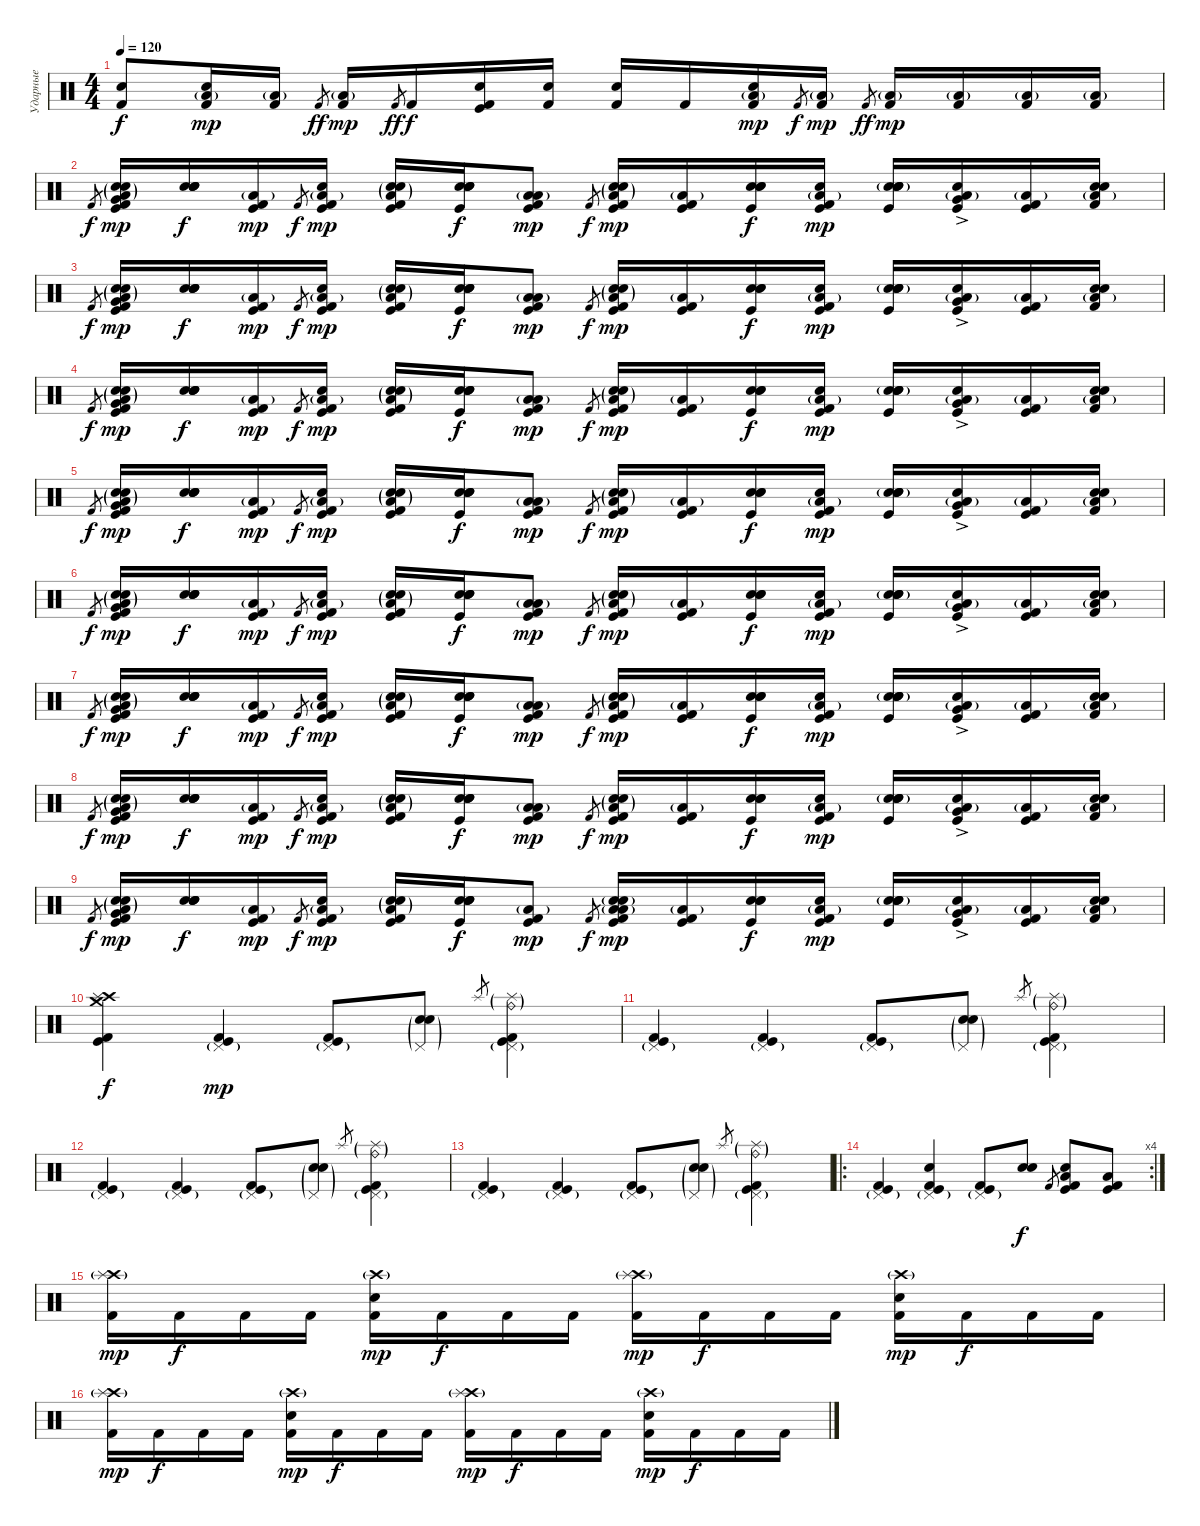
\track ("Ударные" "Ударные") {instrument percussion bank 2}
\staff {score}
\articulation defaults
\ts (4 4)
\tempo 120
\clef neutral
\ks c
("Kick (hit) 2" "Snare (hit) 2").8{dy f} ("Kick (hit) 2" "Snare (hit)" "Low Floor Tom (hit)"{g}).16{dy mp} ("Kick (hit) 2" "Low Floor Tom (hit)"{g}).16 "Kick (hit) 2".8{gr dy ff} ("Kick (hit) 2" "Low Floor Tom (hit)"{g}).16{dy mp} "Kick (hit) 2".8{gr dy ff} "Kick (hit) 2".16{dy f} ("Kick (hit) 2" "Snare (hit)" "Kick (hit)").16 ("Kick (hit) 2" "Snare (hit)").16 ("Kick (hit) 2" "Snare (hit) 2").16 "Kick (hit) 2".16 ("Kick (hit) 2" "Snare (hit)" "Low Floor Tom (hit)"{g}).16{dy mp} "Kick (hit) 2".8{gr dy f} ("Kick (hit) 2" "Low Floor Tom (hit)"{g}).16{dy mp} "Kick (hit) 2".8{gr dy ff} ("Kick (hit) 2" "Low Floor Tom (hit)"{g}).16{dy mp} ("Kick (hit) 2" "Low Floor Tom (hit)"{g}).16 ("Kick (hit) 2" "Low Tom (hit)"{g}).16 ("Kick (hit) 2" "Low Tom (hit)"{g}).16 |
"Kick (hit) 2".8{gr dy f} ("Kick (hit) 2" "Very Low Tom (hit)" "Kick (hit)" "Snare (hit) 2" "Low Floor Tom (hit)"{g} "Electric Snare (hit)"{g}).16{dy mp} ("Snare (hit)" "Snare (hit)" "Snare (hit)" "Snare (hit)").16{dy f} ("Kick (hit) 2" "Kick (hit)" "Low Floor Tom (hit)"{g}).16{dy mp} "Kick (hit) 2".8{gr dy f} ("Kick (hit) 2" "Kick (hit)" "Snare (hit)" "Low Floor Tom (hit)"{g}).16{dy mp} ("Kick (hit) 2" "Kick (hit)" "Snare (hit) 2" "Low Floor Tom (hit)"{g} "Electric Snare (hit)"{g}).16 ("Snare (hit)" "Snare (hit)" "Kick (hit)" "Snare (hit)" "Snare (hit)").16{dy f} ("Kick (hit) 2" "Low Tom (hit)" "Kick (hit)" "Low Floor Tom (hit)"{g}).8{dy mp} "Kick (hit) 2".8{gr dy f} ("Kick (hit) 2" "Kick (hit)" "Snare (hit) 2" "Low Floor Tom (hit)"{g} "Electric Snare (hit)"{g}).16{dy mp} ("Kick (hit) 2" "Kick (hit)" "Low Floor Tom (hit)"{g}).16 ("Snare (hit)" "Kick (hit)" "Snare (hit)" "Snare (hit)").16{dy f} ("Kick (hit) 2" "Kick (hit)" "Snare (hit)" "Low Floor Tom (hit)"{g}).16{dy mp} ("Snare (hit)" "Kick (hit)" "Snare (hit) 2" "Snare (hit)" "Electric Snare (hit)"{g}).16 ("Snare (hit)" "Very Low Tom (hit)" "Kick (hit)"{ac} "Low Floor Tom (hit)"{g}).16 ("Kick (hit) 2" "Kick (hit)" "Low Floor Tom (hit)"{g}).16 ("Kick (hit) 2" "Snare (hit)" "Snare (hit)" "Low Floor Tom (hit)"{g}).16 |
"Kick (hit) 2".8{gr dy f} ("Kick (hit) 2" "Very Low Tom (hit)" "Kick (hit)" "Snare (hit) 2" "Low Floor Tom (hit)"{g} "Electric Snare (hit)"{g}).16{dy mp} ("Snare (hit)" "Snare (hit)" "Snare (hit)" "Snare (hit)").16{dy f} ("Kick (hit) 2" "Kick (hit)" "Low Floor Tom (hit)"{g}).16{dy mp} "Kick (hit) 2".8{gr dy f} ("Kick (hit) 2" "Kick (hit)" "Snare (hit)" "Low Floor Tom (hit)"{g}).16{dy mp} ("Kick (hit) 2" "Kick (hit)" "Snare (hit) 2" "Low Floor Tom (hit)"{g} "Electric Snare (hit)"{g}).16 ("Snare (hit)" "Snare (hit)" "Kick (hit)" "Snare (hit)" "Snare (hit)").16{dy f} ("Kick (hit) 2" "Low Tom (hit)" "Kick (hit)" "Low Floor Tom (hit)"{g}).8{dy mp} "Kick (hit) 2".8{gr dy f} ("Kick (hit) 2" "Kick (hit)" "Snare (hit) 2" "Low Floor Tom (hit)"{g} "Electric Snare (hit)"{g}).16{dy mp} ("Kick (hit) 2" "Kick (hit)" "Low Floor Tom (hit)"{g}).16 ("Snare (hit)" "Kick (hit)" "Snare (hit)" "Snare (hit)").16{dy f} ("Kick (hit) 2" "Kick (hit)" "Snare (hit)" "Low Floor Tom (hit)"{g}).16{dy mp} ("Snare (hit)" "Kick (hit)" "Snare (hit) 2" "Snare (hit)" "Electric Snare (hit)"{g}).16 ("Snare (hit)" "Very Low Tom (hit)" "Kick (hit)"{ac} "Low Floor Tom (hit)"{g}).16 ("Kick (hit) 2" "Kick (hit)" "Low Floor Tom (hit)"{g}).16 ("Kick (hit) 2" "Snare (hit)" "Snare (hit)" "Low Floor Tom (hit)"{g}).16 |
"Kick (hit) 2".8{gr dy f} ("Kick (hit) 2" "Very Low Tom (hit)" "Kick (hit)" "Snare (hit) 2" "Low Floor Tom (hit)"{g} "Electric Snare (hit)"{g}).16{dy mp} ("Snare (hit)" "Snare (hit)" "Snare (hit)" "Snare (hit)").16{dy f} ("Kick (hit) 2" "Kick (hit)" "Low Floor Tom (hit)"{g}).16{dy mp} "Kick (hit) 2".8{gr dy f} ("Kick (hit) 2" "Kick (hit)" "Snare (hit)" "Low Floor Tom (hit)"{g}).16{dy mp} ("Kick (hit) 2" "Kick (hit)" "Snare (hit) 2" "Low Floor Tom (hit)"{g} "Electric Snare (hit)"{g}).16 ("Snare (hit)" "Snare (hit)" "Kick (hit)" "Snare (hit)" "Snare (hit)").16{dy f} ("Kick (hit) 2" "Low Tom (hit)" "Kick (hit)" "Low Floor Tom (hit)"{g}).8{dy mp} "Kick (hit) 2".8{gr dy f} ("Kick (hit) 2" "Kick (hit)" "Snare (hit) 2" "Low Floor Tom (hit)"{g} "Electric Snare (hit)"{g}).16{dy mp} ("Kick (hit) 2" "Kick (hit)" "Low Floor Tom (hit)"{g}).16 ("Snare (hit)" "Kick (hit)" "Snare (hit)" "Snare (hit)").16{dy f} ("Kick (hit) 2" "Kick (hit)" "Snare (hit)" "Low Floor Tom (hit)"{g}).16{dy mp} ("Snare (hit)" "Kick (hit)" "Snare (hit) 2" "Snare (hit)" "Electric Snare (hit)"{g}).16 ("Snare (hit)" "Very Low Tom (hit)" "Kick (hit)"{ac} "Low Floor Tom (hit)"{g}).16 ("Kick (hit) 2" "Kick (hit)" "Low Floor Tom (hit)"{g}).16 ("Kick (hit) 2" "Snare (hit)" "Snare (hit)" "Low Floor Tom (hit)"{g}).16 |
"Kick (hit) 2".8{gr dy f} ("Kick (hit) 2" "Very Low Tom (hit)" "Kick (hit)" "Snare (hit) 2" "Low Floor Tom (hit)"{g} "Electric Snare (hit)"{g}).16{dy mp} ("Snare (hit)" "Snare (hit)" "Snare (hit)" "Snare (hit)").16{dy f} ("Kick (hit) 2" "Kick (hit)" "Low Floor Tom (hit)"{g}).16{dy mp} "Kick (hit) 2".8{gr dy f} ("Kick (hit) 2" "Kick (hit)" "Snare (hit)" "Low Floor Tom (hit)"{g}).16{dy mp} ("Kick (hit) 2" "Kick (hit)" "Snare (hit) 2" "Low Floor Tom (hit)"{g} "Electric Snare (hit)"{g}).16 ("Snare (hit)" "Snare (hit)" "Kick (hit)" "Snare (hit)" "Snare (hit)").16{dy f} ("Kick (hit) 2" "Low Tom (hit)" "Kick (hit)" "Low Floor Tom (hit)"{g}).8{dy mp} "Kick (hit) 2".8{gr dy f} ("Kick (hit) 2" "Kick (hit)" "Snare (hit) 2" "Low Floor Tom (hit)"{g} "Electric Snare (hit)"{g}).16{dy mp} ("Kick (hit) 2" "Kick (hit)" "Low Floor Tom (hit)"{g}).16 ("Snare (hit)" "Kick (hit)" "Snare (hit)" "Snare (hit)").16{dy f} ("Kick (hit) 2" "Kick (hit)" "Snare (hit)" "Low Floor Tom (hit)"{g}).16{dy mp} ("Snare (hit)" "Kick (hit)" "Snare (hit) 2" "Snare (hit)" "Electric Snare (hit)"{g}).16 ("Snare (hit)" "Very Low Tom (hit)" "Kick (hit)"{ac} "Low Floor Tom (hit)"{g}).16 ("Kick (hit) 2" "Kick (hit)" "Low Floor Tom (hit)"{g}).16 ("Kick (hit) 2" "Snare (hit)" "Snare (hit)" "Low Floor Tom (hit)"{g}).16 |
"Kick (hit) 2".8{gr dy f} ("Kick (hit) 2" "Very Low Tom (hit)" "Kick (hit)" "Snare (hit) 2" "Low Floor Tom (hit)"{g} "Electric Snare (hit)"{g}).16{dy mp} ("Snare (hit)" "Snare (hit)" "Snare (hit)" "Snare (hit)").16{dy f} ("Kick (hit) 2" "Kick (hit)" "Low Floor Tom (hit)"{g}).16{dy mp} "Kick (hit) 2".8{gr dy f} ("Kick (hit) 2" "Kick (hit)" "Snare (hit)" "Low Floor Tom (hit)"{g}).16{dy mp} ("Kick (hit) 2" "Kick (hit)" "Snare (hit) 2" "Low Floor Tom (hit)"{g} "Electric Snare (hit)"{g}).16 ("Snare (hit)" "Snare (hit)" "Kick (hit)" "Snare (hit)" "Snare (hit)").16{dy f} ("Kick (hit) 2" "Low Tom (hit)" "Kick (hit)" "Low Floor Tom (hit)"{g}).8{dy mp} "Kick (hit) 2".8{gr dy f} ("Kick (hit) 2" "Kick (hit)" "Snare (hit) 2" "Low Floor Tom (hit)"{g} "Electric Snare (hit)"{g}).16{dy mp} ("Kick (hit) 2" "Kick (hit)" "Low Floor Tom (hit)"{g}).16 ("Snare (hit)" "Kick (hit)" "Snare (hit)" "Snare (hit)").16{dy f} ("Kick (hit) 2" "Kick (hit)" "Snare (hit)" "Low Floor Tom (hit)"{g}).16{dy mp} ("Snare (hit)" "Kick (hit)" "Snare (hit) 2" "Snare (hit)" "Electric Snare (hit)"{g}).16 ("Snare (hit)" "Very Low Tom (hit)" "Kick (hit)"{ac} "Low Floor Tom (hit)"{g}).16 ("Kick (hit) 2" "Kick (hit)" "Low Floor Tom (hit)"{g}).16 ("Kick (hit) 2" "Snare (hit)" "Snare (hit)" "Low Floor Tom (hit)"{g}).16 |
"Kick (hit) 2".8{gr dy f} ("Kick (hit) 2" "Very Low Tom (hit)" "Kick (hit)" "Snare (hit) 2" "Low Floor Tom (hit)"{g} "Electric Snare (hit)"{g}).16{dy mp} ("Snare (hit)" "Snare (hit)" "Snare (hit)" "Snare (hit)").16{dy f} ("Kick (hit) 2" "Kick (hit)" "Low Floor Tom (hit)"{g}).16{dy mp} "Kick (hit) 2".8{gr dy f} ("Kick (hit) 2" "Kick (hit)" "Snare (hit)" "Low Floor Tom (hit)"{g}).16{dy mp} ("Kick (hit) 2" "Kick (hit)" "Snare (hit) 2" "Low Floor Tom (hit)"{g} "Electric Snare (hit)"{g}).16 ("Snare (hit)" "Snare (hit)" "Kick (hit)" "Snare (hit)" "Snare (hit)").16{dy f} ("Kick (hit) 2" "Low Tom (hit)" "Kick (hit)" "Low Floor Tom (hit)"{g}).8{dy mp} "Kick (hit) 2".8{gr dy f} ("Kick (hit) 2" "Kick (hit)" "Snare (hit) 2" "Low Floor Tom (hit)"{g} "Electric Snare (hit)"{g}).16{dy mp} ("Kick (hit) 2" "Kick (hit)" "Low Floor Tom (hit)"{g}).16 ("Snare (hit)" "Kick (hit)" "Snare (hit)" "Snare (hit)").16{dy f} ("Kick (hit) 2" "Kick (hit)" "Snare (hit)" "Low Floor Tom (hit)"{g}).16{dy mp} ("Snare (hit)" "Kick (hit)" "Snare (hit) 2" "Snare (hit)" "Electric Snare (hit)"{g}).16 ("Snare (hit)" "Very Low Tom (hit)" "Kick (hit)"{ac} "Low Floor Tom (hit)"{g}).16 ("Kick (hit) 2" "Kick (hit)" "Low Floor Tom (hit)"{g}).16 ("Kick (hit) 2" "Snare (hit)" "Snare (hit)" "Low Floor Tom (hit)"{g}).16 |
"Kick (hit) 2".8{gr dy f} ("Kick (hit) 2" "Very Low Tom (hit)" "Kick (hit)" "Snare (hit) 2" "Low Floor Tom (hit)"{g} "Electric Snare (hit)"{g}).16{dy mp} ("Snare (hit)" "Snare (hit)" "Snare (hit)" "Snare (hit)").16{dy f} ("Kick (hit) 2" "Kick (hit)" "Low Floor Tom (hit)"{g}).16{dy mp} "Kick (hit) 2".8{gr dy f} ("Kick (hit) 2" "Kick (hit)" "Snare (hit)" "Low Floor Tom (hit)"{g}).16{dy mp} ("Kick (hit) 2" "Kick (hit)" "Snare (hit) 2" "Low Floor Tom (hit)"{g} "Electric Snare (hit)"{g}).16 ("Snare (hit)" "Snare (hit)" "Kick (hit)" "Snare (hit)" "Snare (hit)").16{dy f} ("Kick (hit) 2" "Low Tom (hit)" "Kick (hit)" "Low Floor Tom (hit)"{g}).8{dy mp} "Kick (hit) 2".8{gr dy f} ("Kick (hit) 2" "Kick (hit)" "Snare (hit) 2" "Low Floor Tom (hit)"{g} "Electric Snare (hit)"{g}).16{dy mp} ("Kick (hit) 2" "Kick (hit)" "Low Floor Tom (hit)"{g}).16 ("Snare (hit)" "Kick (hit)" "Snare (hit)" "Snare (hit)").16{dy f} ("Kick (hit) 2" "Kick (hit)" "Snare (hit)" "Low Floor Tom (hit)"{g}).16{dy mp} ("Snare (hit)" "Kick (hit)" "Snare (hit) 2" "Snare (hit)" "Electric Snare (hit)"{g}).16 ("Snare (hit)" "Very Low Tom (hit)" "Kick (hit)"{ac} "Low Floor Tom (hit)"{g}).16 ("Kick (hit) 2" "Kick (hit)" "Low Floor Tom (hit)"{g}).16 ("Kick (hit) 2" "Snare (hit)" "Snare (hit)" "Low Floor Tom (hit)"{g}).16 |
"Kick (hit) 2".8{gr dy f} ("Kick (hit) 2" "Very Low Tom (hit)" "Kick (hit)" "Snare (hit) 2" "Low Floor Tom (hit)"{g} "Electric Snare (hit)"{g}).16{dy mp} ("Snare (hit)" "Snare (hit)" "Snare (hit)" "Snare (hit)").16{dy f} ("Kick (hit) 2" "Kick (hit)" "Low Floor Tom (hit)"{g}).16{dy mp} "Kick (hit) 2".8{gr dy f} ("Kick (hit) 2" "Kick (hit)" "Snare (hit)" "Low Floor Tom (hit)"{g}).16{dy mp} ("Kick (hit) 2" "Kick (hit)" "Snare (hit) 2" "Low Floor Tom (hit)"{g} "Electric Snare (hit)"{g}).16 ("Snare (hit)" "Snare (hit)" "Kick (hit)" "Snare (hit)" "Snare (hit)").16{dy f} ("Kick (hit) 2" "Kick (hit)" "Low Floor Tom (hit)"{g}).8{dy mp} "Kick (hit) 2".8{gr dy f} ("Kick (hit) 2" "Low Tom (hit)" "Kick (hit)" "Snare (hit) 2" "Low Floor Tom (hit)"{g} "Electric Snare (hit)"{g}).16{dy mp} ("Kick (hit) 2" "Kick (hit)" "Low Floor Tom (hit)"{g}).16 ("Snare (hit)" "Kick (hit)" "Snare (hit)" "Snare (hit)").16{dy f} ("Kick (hit) 2" "Kick (hit)" "Snare (hit)" "Low Floor Tom (hit)"{g}).16{dy mp} ("Snare (hit)" "Kick (hit)" "Snare (hit) 2" "Snare (hit)" "Electric Snare (hit)"{g}).16 ("Snare (hit)" "Very Low Tom (hit)" "Kick (hit)"{ac} "Low Floor Tom (hit)"{g}).16 ("Kick (hit) 2" "Kick (hit)" "Low Floor Tom (hit)"{g}).16 ("Kick (hit) 2" "Snare (hit)" "Snare (hit)" "Low Floor Tom (hit)"{g}).16 |
("Kick (hit) 2" "Crash medium (hit)" "Crash high (hit)" "Splash (hit)" "Kick (hit)").4{dy f} ("Kick (hit) 2" "Pedal Hi-Hat (hit)"{g} "Kick (hit)").4{dy mp} ("Kick (hit) 2" "Pedal Hi-Hat (hit)"{g} "Kick (hit)").8 ("Snare (hit)" "Pedal Hi-Hat (hit)"{g} "Snare (hit)"{g}).8 "Splash (hit)".8{gr} ("Kick (hit) 2" "Pedal Hi-Hat (hit)"{g} "Ride (bell)"{g} "Splash (hit)"{g} "Kick (hit)").4 |
("Kick (hit) 2" "Pedal Hi-Hat (hit)"{g} "Kick (hit)").4 ("Kick (hit) 2" "Pedal Hi-Hat (hit)"{g} "Kick (hit)").4 ("Kick (hit) 2" "Pedal Hi-Hat (hit)"{g} "Kick (hit)").8 ("Snare (hit)" "Pedal Hi-Hat (hit)"{g} "Snare (hit)"{g}).8 "Splash (hit)".8{gr} ("Kick (hit) 2" "Pedal Hi-Hat (hit)"{g} "Ride (bell)"{g} "Splash (hit)"{g} "Kick (hit)").4 |
("Kick (hit) 2" "Pedal Hi-Hat (hit)"{g} "Kick (hit)").4 ("Kick (hit) 2" "Pedal Hi-Hat (hit)"{g} "Kick (hit)").4 ("Kick (hit) 2" "Pedal Hi-Hat (hit)"{g} "Kick (hit)").8 ("Snare (hit)" "Pedal Hi-Hat (hit)"{g} "Snare (hit)"{g}).8 "Splash (hit)".8{gr} ("Kick (hit) 2" "Pedal Hi-Hat (hit)"{g} "Ride (bell)"{g} "Splash (hit)"{g} "Kick (hit)").4 |
("Kick (hit) 2" "Pedal Hi-Hat (hit)"{g} "Kick (hit)").4 ("Kick (hit) 2" "Pedal Hi-Hat (hit)"{g} "Kick (hit)").4 ("Kick (hit) 2" "Pedal Hi-Hat (hit)"{g} "Kick (hit)").8 ("Snare (hit)" "Pedal Hi-Hat (hit)"{g} "Snare (hit)"{g}).8 "Splash (hit)".8{gr} ("Kick (hit) 2" "Pedal Hi-Hat (hit)"{g} "Ride (bell)"{g} "Splash (hit)"{g} "Kick (hit)").4 |
\ro
\rc 4
("Kick (hit) 2" "Pedal Hi-Hat (hit)"{g} "Kick (hit)").4 ("Kick (hit) 2" "Pedal Hi-Hat (hit)"{g} "Snare (hit) 2" "Kick (hit)").4 ("Kick (hit) 2" "Pedal Hi-Hat (hit)"{g} "Kick (hit)").8 ("Snare (hit)" "Snare (hit)").8{dy f} "Kick (hit) 2".8{gr} ("Kick (hit) 2" "Low Floor Tom (hit)" "Snare (hit) 2" "Kick (hit)").8 ("Kick (hit) 2" "Low Floor Tom (hit)" "Kick (hit)").8 |
("Kick (hit) 2" "Crash high (hit)"{g} "Splash (hit)"{g}).16{dy mp} "Kick (hit) 2".16{dy f} "Kick (hit) 2".16 "Kick (hit) 2".16 ("Kick (hit) 2" "Snare (hit) 2" "Crash high (hit)"{g}).16{dy mp} "Kick (hit) 2".16{dy f} "Kick (hit) 2".16 "Kick (hit) 2".16 ("Kick (hit) 2" "Crash high (hit)"{g} "Splash (hit)"{g}).16{dy mp} "Kick (hit) 2".16{dy f} "Kick (hit) 2".16 "Kick (hit) 2".16 ("Kick (hit) 2" "Snare (hit) 2" "Crash high (hit)"{g}).16{dy mp} "Kick (hit) 2".16{dy f} "Kick (hit) 2".16 "Kick (hit) 2".16 |
("Kick (hit) 2" "Crash high (hit)"{g} "Splash (hit)"{g}).16{dy mp} "Kick (hit) 2".16{dy f} "Kick (hit) 2".16 "Kick (hit) 2".16 ("Kick (hit) 2" "Snare (hit) 2" "Crash high (hit)"{g}).16{dy mp} "Kick (hit) 2".16{dy f} "Kick (hit) 2".16 "Kick (hit) 2".16 ("Kick (hit) 2" "Crash high (hit)"{g} "Splash (hit)"{g}).16{dy mp} "Kick (hit) 2".16{dy f} "Kick (hit) 2".16 "Kick (hit) 2".16 ("Kick (hit) 2" "Snare (hit) 2" "Crash high (hit)"{g}).16{dy mp} "Kick (hit) 2".16{dy f} "Kick (hit) 2".16 "Kick (hit) 2".16
